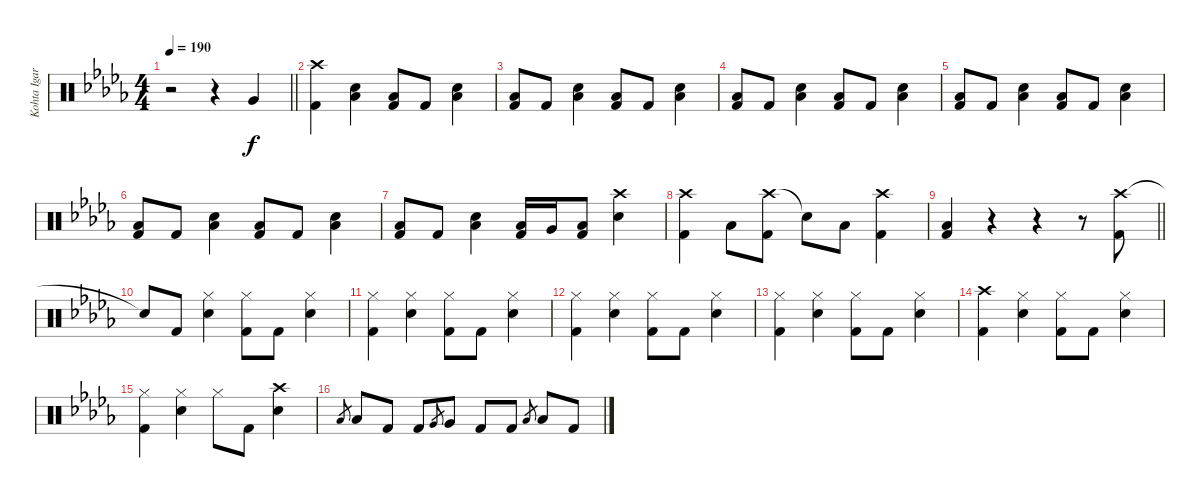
\track ("Kohta Igarashi" "Kohta Igar") {instrument percussion}
\staff {score}
\articulation defaults
\ts (4 4)
\tempo 190
\clef neutral
\barLineRight lightlight
\ks db
r.2{dy f} r.4 "Very Low Tom (hit)".4 |
("Crash high (hit)" "Kick (hit) 2").4 ("Electric Snare (hit)" "Low Floor Tom (hit)").4 ("Low Floor Tom (hit)" "Kick (hit) 2").8 "Kick (hit) 2".8 ("Electric Snare (hit)" "Low Floor Tom (hit)").4 |
("Low Floor Tom (hit)" "Kick (hit) 2").8 "Kick (hit) 2".8 ("Electric Snare (hit)" "Low Floor Tom (hit)").4 ("Low Floor Tom (hit)" "Kick (hit) 2").8 "Kick (hit) 2".8 ("Electric Snare (hit)" "Low Floor Tom (hit)").4 |
("Low Floor Tom (hit)" "Kick (hit) 2").8 "Kick (hit) 2".8 ("Electric Snare (hit)" "Low Floor Tom (hit)").4 ("Low Floor Tom (hit)" "Kick (hit) 2").8 "Kick (hit) 2".8 ("Electric Snare (hit)" "Low Floor Tom (hit)").4 |
("Low Floor Tom (hit)" "Kick (hit) 2").8 "Kick (hit) 2".8 ("Electric Snare (hit)" "Low Floor Tom (hit)").4 ("Low Floor Tom (hit)" "Kick (hit) 2").8 "Kick (hit) 2".8 ("Electric Snare (hit)" "Low Floor Tom (hit)").4 |
("Low Floor Tom (hit)" "Kick (hit) 2").8 "Kick (hit) 2".8 ("Electric Snare (hit)" "Low Floor Tom (hit)").4 ("Low Floor Tom (hit)" "Kick (hit) 2").8 "Kick (hit) 2".8 ("Electric Snare (hit)" "Low Floor Tom (hit)").4 |
("Low Floor Tom (hit)" "Kick (hit) 2").8 "Kick (hit) 2".8 ("Electric Snare (hit)" "Low Floor Tom (hit)").4 ("Low Tom (hit)" "Kick (hit) 2").16 "Very Low Tom (hit)".16 ("Low Floor Tom (hit)" "Kick (hit) 2").8 ("Crash high (hit)" "Electric Snare (hit)").4 |
("Crash high (hit)" "Kick (hit) 2").4 "Low Floor Tom (hit)".8 ("Crash high (hit)" "Kick (hit) 2").8 "Snare (hit)"{t}.8 "Low Floor Tom (hit)".8 ("Crash high (hit)" "Kick (hit) 2").4 |
\barLineRight lightlight
("Low Floor Tom (hit)" "Kick (hit) 2").4 r.4 r.4 r.8 ("Crash high (hit)" "Kick (hit) 2").8 |
"Snare (hit)"{t}.8 "Kick (hit) 2".8 ("Hi-Hat (closed)" "Electric Snare (hit)").4 ("Hi-Hat (closed)" "Kick (hit) 2").8 "Kick (hit) 2".8 ("Hi-Hat (closed)" "Electric Snare (hit)").4 |
("Hi-Hat (closed)" "Kick (hit) 2").4 ("Hi-Hat (closed)" "Electric Snare (hit)").4 ("Hi-Hat (closed)" "Kick (hit) 2").8 "Kick (hit) 2".8 ("Hi-Hat (closed)" "Electric Snare (hit)").4 |
("Hi-Hat (closed)" "Kick (hit) 2").4 ("Hi-Hat (closed)" "Electric Snare (hit)").4 ("Hi-Hat (closed)" "Kick (hit) 2").8 "Kick (hit) 2".8 ("Hi-Hat (closed)" "Electric Snare (hit)").4 |
("Hi-Hat (closed)" "Kick (hit) 2").4 ("Hi-Hat (closed)" "Electric Snare (hit)").4 ("Hi-Hat (closed)" "Kick (hit) 2").8 "Kick (hit) 2".8 ("Hi-Hat (closed)" "Electric Snare (hit)").4 |
("Crash high (hit)" "Kick (hit) 2").4 ("Hi-Hat (closed)" "Electric Snare (hit)").4 ("Hi-Hat (closed)" "Kick (hit) 2").8 "Kick (hit) 2".8 ("Hi-Hat (closed)" "Electric Snare (hit)").4 |
("Hi-Hat (closed)" "Kick (hit) 2").4 ("Hi-Hat (closed)" "Electric Snare (hit)").4 "Hi-Hat (closed)".8 "Kick (hit) 2".8 ("Crash high (hit)" "Electric Snare (hit)").4 |
"Low Tom (hit)".8{gr} "Low Tom (hit)".8 "Kick (hit) 2".8 "Kick (hit) 2".8 "Very Low Tom (hit)".8{gr} "Very Low Tom (hit)".8 "Kick (hit) 2".8 "Kick (hit) 2".8 "Low Floor Tom (hit)".8{gr} "Low Floor Tom (hit)".8 "Kick (hit) 2".8
